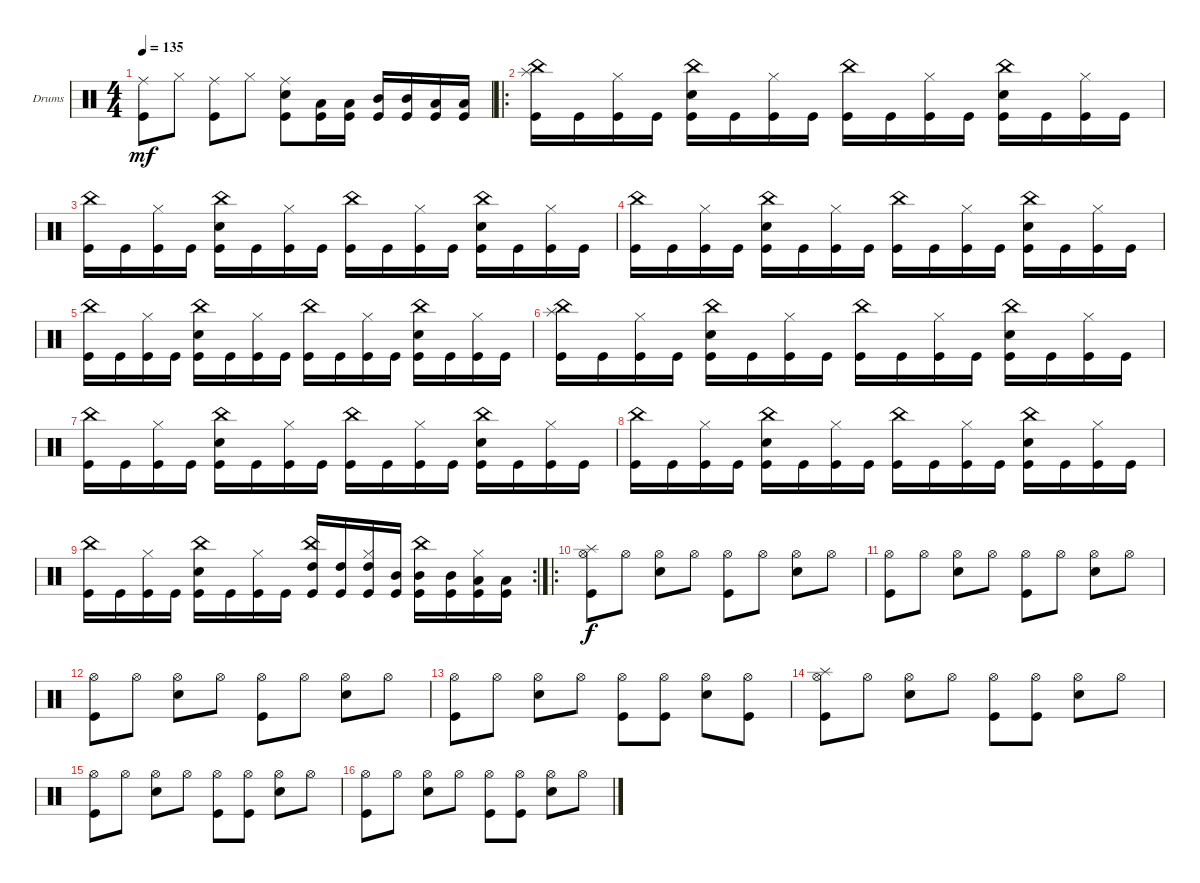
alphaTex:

\defaultSystemsLayout 4
\bracketExtendMode groupsimilarinstruments
\firstSystemTrackNameOrientation horizontal
\otherSystemsTrackNameOrientation horizontal
\track ("Drums" "Drums") {instrument percussion}
\staff {score}
\articulation defaults
\ts (4 4)
\tempo 135
\clef neutral
\ks c
("Ride (middle)" "Kick (hit)").8{dy mf} "Hi-Hat (closed)".8 ("Ride (middle)" "Kick (hit)").8 "Hi-Hat (closed)".8 ("Ride (middle)" "Kick (hit)" "Snare (hit) 2").8 ("Low Tom (hit)" "Kick (hit)").16 ("Low Tom (hit)" "Kick (hit)").16 ("Mid Tom (hit)" "Kick (hit)").16 ("Mid Tom (hit)" "Kick (hit)").16 ("Low Tom (hit)" "Kick (hit)").16 ("Low Tom (hit)" "Kick (hit)").16 |
\ro
("Kick (hit)" "China (hit)" "Splash (hit)").16 "Kick (hit)".16 ("Kick (hit)" "Hi-Hat (closed)").16 "Kick (hit)".16 ("Kick (hit)" "Snare (hit) 2" "China (hit)").16 "Kick (hit)".16 ("Kick (hit)" "Hi-Hat (closed)").16 "Kick (hit)".16 ("Kick (hit)" "China (hit)").16 "Kick (hit)".16 ("Kick (hit)" "Hi-Hat (closed)").16 "Kick (hit)".16 ("Kick (hit)" "Snare (hit) 2" "China (hit)").16 "Kick (hit)".16 ("Kick (hit)" "Hi-Hat (closed)").16 "Kick (hit)".16 |
("Kick (hit)" "China (hit)").16 "Kick (hit)".16 ("Kick (hit)" "Hi-Hat (closed)").16 "Kick (hit)".16 ("Kick (hit)" "Snare (hit) 2" "China (hit)").16 "Kick (hit)".16 ("Kick (hit)" "Hi-Hat (closed)").16 "Kick (hit)".16 ("Kick (hit)" "China (hit)").16 "Kick (hit)".16 ("Kick (hit)" "Hi-Hat (closed)").16 "Kick (hit)".16 ("Kick (hit)" "Snare (hit) 2" "China (hit)").16 "Kick (hit)".16 ("Kick (hit)" "Hi-Hat (closed)").16 "Kick (hit)".16 |
("Kick (hit)" "China (hit)").16 "Kick (hit)".16 ("Kick (hit)" "Hi-Hat (closed)").16 "Kick (hit)".16 ("Kick (hit)" "Snare (hit) 2" "China (hit)").16 "Kick (hit)".16 ("Kick (hit)" "Hi-Hat (closed)").16 "Kick (hit)".16 ("Kick (hit)" "China (hit)").16 "Kick (hit)".16 ("Kick (hit)" "Hi-Hat (closed)").16 "Kick (hit)".16 ("Kick (hit)" "Snare (hit) 2" "China (hit)").16 "Kick (hit)".16 ("Kick (hit)" "Hi-Hat (closed)").16 "Kick (hit)".16 |
("Kick (hit)" "China (hit)").16 "Kick (hit)".16 ("Kick (hit)" "Hi-Hat (closed)").16 "Kick (hit)".16 ("Kick (hit)" "Snare (hit) 2" "China (hit)").16 "Kick (hit)".16 ("Kick (hit)" "Hi-Hat (closed)").16 "Kick (hit)".16 ("Kick (hit)" "China (hit)").16 "Kick (hit)".16 ("Kick (hit)" "Hi-Hat (closed)").16 "Kick (hit)".16 ("Kick (hit)" "Snare (hit) 2" "China (hit)").16 "Kick (hit)".16 ("Kick (hit)" "Hi-Hat (closed)").16 "Kick (hit)".16 |
("Kick (hit)" "China (hit)" "Splash (hit)").16 "Kick (hit)".16 ("Kick (hit)" "Hi-Hat (closed)").16 "Kick (hit)".16 ("Kick (hit)" "Snare (hit) 2" "China (hit)").16 "Kick (hit)".16 ("Kick (hit)" "Hi-Hat (closed)").16 "Kick (hit)".16 ("Kick (hit)" "China (hit)").16 "Kick (hit)".16 ("Kick (hit)" "Hi-Hat (closed)").16 "Kick (hit)".16 ("Kick (hit)" "Snare (hit) 2" "China (hit)").16 "Kick (hit)".16 ("Kick (hit)" "Hi-Hat (closed)").16 "Kick (hit)".16 |
("Kick (hit)" "China (hit)").16 "Kick (hit)".16 ("Kick (hit)" "Hi-Hat (closed)").16 "Kick (hit)".16 ("Kick (hit)" "Snare (hit) 2" "China (hit)").16 "Kick (hit)".16 ("Kick (hit)" "Hi-Hat (closed)").16 "Kick (hit)".16 ("Kick (hit)" "China (hit)").16 "Kick (hit)".16 ("Kick (hit)" "Hi-Hat (closed)").16 "Kick (hit)".16 ("Kick (hit)" "Snare (hit) 2" "China (hit)").16 "Kick (hit)".16 ("Kick (hit)" "Hi-Hat (closed)").16 "Kick (hit)".16 |
("Kick (hit)" "China (hit)").16 "Kick (hit)".16 ("Kick (hit)" "Hi-Hat (closed)").16 "Kick (hit)".16 ("Kick (hit)" "Snare (hit) 2" "China (hit)").16 "Kick (hit)".16 ("Kick (hit)" "Hi-Hat (closed)").16 "Kick (hit)".16 ("Kick (hit)" "China (hit)").16 "Kick (hit)".16 ("Kick (hit)" "Hi-Hat (closed)").16 "Kick (hit)".16 ("Kick (hit)" "Snare (hit) 2" "China (hit)").16 "Kick (hit)".16 ("Kick (hit)" "Hi-Hat (closed)").16 "Kick (hit)".16 |
\rc 2
("Kick (hit)" "China (hit)").16 "Kick (hit)".16 ("Kick (hit)" "Hi-Hat (closed)").16 "Kick (hit)".16 ("Kick (hit)" "Snare (hit) 2" "China (hit)").16 "Kick (hit)".16 ("Kick (hit)" "Hi-Hat (closed)").16 "Kick (hit)".16 ("Kick (hit)" "China (hit)" "High Tom (hit)").16 ("Kick (hit)" "High Tom (hit)").16 ("Kick (hit)" "Hi-Hat (closed)" "High Tom (hit)").16 ("Kick (hit)" "Mid Tom (hit)").16 ("Kick (hit)" "China (hit)" "Mid Tom (hit)").16 ("Kick (hit)" "Mid Tom (hit)").16 ("Kick (hit)" "Hi-Hat (closed)" "Low Tom (hit)").16 ("Kick (hit)" "Low Tom (hit)").16 |
\ro
("Hi-Hat (open)" "Kick (hit)" "Splash (hit)").8{dy f} "Hi-Hat (open)".8 ("Hi-Hat (open)" "Snare (hit) 2").8 "Hi-Hat (open)".8 ("Hi-Hat (open)" "Kick (hit)").8 "Hi-Hat (open)".8 ("Hi-Hat (open)" "Snare (hit) 2").8 "Hi-Hat (open)".8 |
("Hi-Hat (open)" "Kick (hit)").8 "Hi-Hat (open)".8 ("Hi-Hat (open)" "Snare (hit) 2").8 "Hi-Hat (open)".8 ("Hi-Hat (open)" "Kick (hit)").8 "Hi-Hat (open)".8 ("Hi-Hat (open)" "Snare (hit) 2").8 "Hi-Hat (open)".8 |
("Hi-Hat (open)" "Kick (hit)").8 "Hi-Hat (open)".8 ("Hi-Hat (open)" "Snare (hit) 2").8 "Hi-Hat (open)".8 ("Hi-Hat (open)" "Kick (hit)").8 "Hi-Hat (open)".8 ("Hi-Hat (open)" "Snare (hit) 2").8 "Hi-Hat (open)".8 |
("Hi-Hat (open)" "Kick (hit)").8 "Hi-Hat (open)".8 ("Hi-Hat (open)" "Snare (hit) 2").8 "Hi-Hat (open)".8 ("Hi-Hat (open)" "Kick (hit)").8 ("Hi-Hat (open)" "Kick (hit)").8 ("Hi-Hat (open)" "Snare (hit) 2").8 ("Hi-Hat (open)" "Kick (hit)").8 |
("Hi-Hat (open)" "Kick (hit)" "Splash (hit)").8 "Hi-Hat (open)".8 ("Hi-Hat (open)" "Snare (hit) 2").8 "Hi-Hat (open)".8 ("Hi-Hat (open)" "Kick (hit)").8 ("Hi-Hat (open)" "Kick (hit)").8 ("Hi-Hat (open)" "Snare (hit) 2").8 "Hi-Hat (open)".8 |
("Hi-Hat (open)" "Kick (hit)").8 "Hi-Hat (open)".8 ("Hi-Hat (open)" "Snare (hit) 2").8 "Hi-Hat (open)".8 ("Hi-Hat (open)" "Kick (hit)").8 ("Hi-Hat (open)" "Kick (hit)").8 ("Hi-Hat (open)" "Snare (hit) 2").8 "Hi-Hat (open)".8 |
("Hi-Hat (open)" "Kick (hit)").8 "Hi-Hat (open)".8 ("Hi-Hat (open)" "Snare (hit) 2").8 "Hi-Hat (open)".8 ("Hi-Hat (open)" "Kick (hit)").8 ("Hi-Hat (open)" "Kick (hit)").8 ("Hi-Hat (open)" "Snare (hit) 2").8 "Hi-Hat (open)".8
